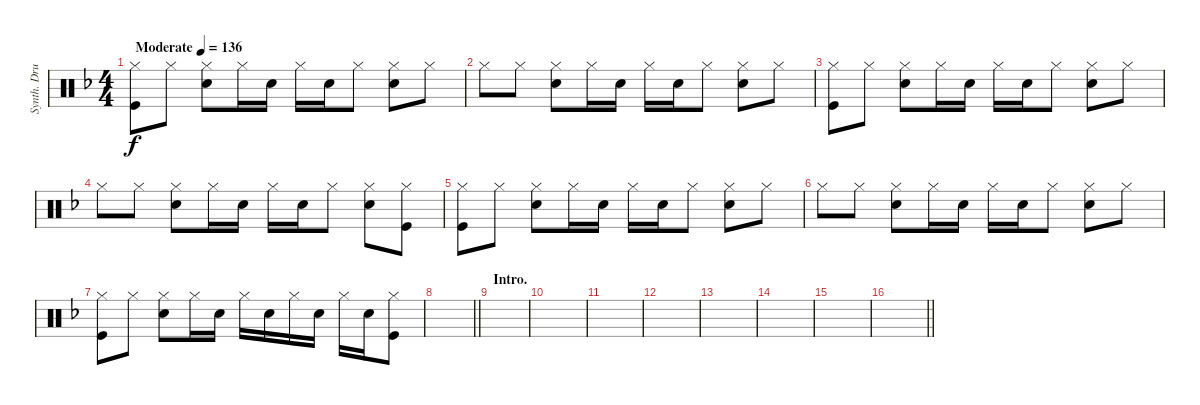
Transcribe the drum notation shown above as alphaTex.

\track ("Synth. Drums" "Synth. Dru") {instrument percussion}
\staff {score}
\articulation defaults
\ts (4 4)
\tempo (136 "Moderate")
\clef neutral
\ks dminor
("Hi-Hat (closed)" "Kick (hit)").8{dy f} "Hi-Hat (closed)".8 ("Hi-Hat (closed)" "Snare (hit) 2").8 "Hi-Hat (closed)".16 "Snare (hit) 2".16 "Hi-Hat (closed)".16 "Snare (hit) 2".16 "Hi-Hat (closed)".8 ("Hi-Hat (closed)" "Snare (hit) 2").8 "Hi-Hat (closed)".8 |
"Hi-Hat (closed)".8 "Hi-Hat (closed)".8 ("Hi-Hat (closed)" "Snare (hit) 2").8 "Hi-Hat (closed)".16 "Snare (hit) 2".16 "Hi-Hat (closed)".16 "Snare (hit) 2".16 "Hi-Hat (closed)".8 ("Snare (hit) 2" "Hi-Hat (closed)").8 "Hi-Hat (closed)".8 |
("Hi-Hat (closed)" "Kick (hit)").8 "Hi-Hat (closed)".8 ("Hi-Hat (closed)" "Snare (hit) 2").8 "Hi-Hat (closed)".16 "Snare (hit) 2".16 "Hi-Hat (closed)".16 "Snare (hit) 2".16 "Hi-Hat (closed)".8 ("Hi-Hat (closed)" "Snare (hit) 2").8 "Hi-Hat (closed)".8 |
"Hi-Hat (closed)".8 "Hi-Hat (closed)".8 ("Hi-Hat (closed)" "Snare (hit) 2").8 "Hi-Hat (closed)".16 "Snare (hit) 2".16 "Hi-Hat (closed)".16 "Snare (hit) 2".16 "Hi-Hat (closed)".8 ("Snare (hit) 2" "Hi-Hat (closed)").8 ("Hi-Hat (closed)" "Kick (hit)").8 |
("Hi-Hat (closed)" "Kick (hit)").8 "Hi-Hat (closed)".8 ("Hi-Hat (closed)" "Snare (hit) 2").8 "Hi-Hat (closed)".16 "Snare (hit) 2".16 "Hi-Hat (closed)".16 "Snare (hit) 2".16 "Hi-Hat (closed)".8 ("Hi-Hat (closed)" "Snare (hit) 2").8 "Hi-Hat (closed)".8 |
"Hi-Hat (closed)".8 "Hi-Hat (closed)".8 ("Hi-Hat (closed)" "Snare (hit) 2").8 "Hi-Hat (closed)".16 "Snare (hit) 2".16 "Hi-Hat (closed)".16 "Snare (hit) 2".16 "Hi-Hat (closed)".8 ("Snare (hit) 2" "Hi-Hat (closed)").8 "Hi-Hat (closed)".8 |
("Hi-Hat (closed)" "Kick (hit)").8 "Hi-Hat (closed)".8 ("Hi-Hat (closed)" "Snare (hit) 2").8 "Hi-Hat (closed)".16 "Snare (hit) 2".16 "Hi-Hat (closed)".16 "Snare (hit) 2".16 "Hi-Hat (closed)".16 "Snare (hit) 2".16 "Hi-Hat (closed)".16 "Snare (hit) 2".16 ("Hi-Hat (closed)" "Kick (hit)").8 |
\barLineRight lightlight
|
\section ("" "Intro.")
|
|
|
|
|
|
|
\barLineRight lightlight
